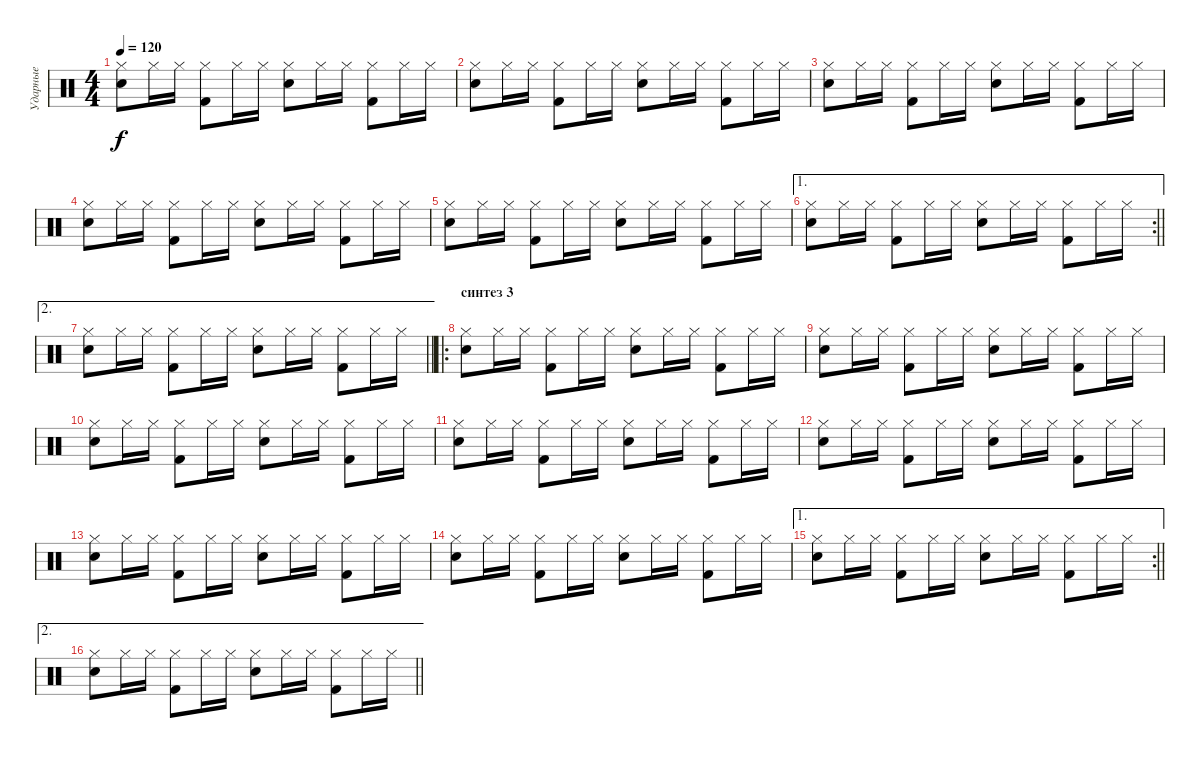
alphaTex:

\track ("Ударные" "Ударные") {instrument percussion}
\staff {score}
\articulation defaults
\ts (4 4)
\tempo 120
\clef neutral
\ks c
("Hi-Hat (closed)" "Snare (hit) 2").8{dy f} "Hi-Hat (closed)".16 "Hi-Hat (closed)".16 ("Hi-Hat (closed)" "Kick (hit) 2").8 "Hi-Hat (closed)".16 "Hi-Hat (closed)".16 ("Hi-Hat (closed)" "Snare (hit) 2").8 "Hi-Hat (closed)".16 "Hi-Hat (closed)".16 ("Hi-Hat (closed)" "Kick (hit) 2").8 "Hi-Hat (closed)".16 "Hi-Hat (closed)".16 |
("Hi-Hat (closed)" "Snare (hit) 2").8 "Hi-Hat (closed)".16 "Hi-Hat (closed)".16 ("Hi-Hat (closed)" "Kick (hit) 2").8 "Hi-Hat (closed)".16 "Hi-Hat (closed)".16 ("Hi-Hat (closed)" "Snare (hit) 2").8 "Hi-Hat (closed)".16 "Hi-Hat (closed)".16 ("Hi-Hat (closed)" "Kick (hit) 2").8 "Hi-Hat (closed)".16 "Hi-Hat (closed)".16 |
("Hi-Hat (closed)" "Snare (hit) 2").8 "Hi-Hat (closed)".16 "Hi-Hat (closed)".16 ("Hi-Hat (closed)" "Kick (hit) 2").8 "Hi-Hat (closed)".16 "Hi-Hat (closed)".16 ("Hi-Hat (closed)" "Snare (hit) 2").8 "Hi-Hat (closed)".16 "Hi-Hat (closed)".16 ("Hi-Hat (closed)" "Kick (hit) 2").8 "Hi-Hat (closed)".16 "Hi-Hat (closed)".16 |
("Hi-Hat (closed)" "Snare (hit) 2").8 "Hi-Hat (closed)".16 "Hi-Hat (closed)".16 ("Hi-Hat (closed)" "Kick (hit) 2").8 "Hi-Hat (closed)".16 "Hi-Hat (closed)".16 ("Hi-Hat (closed)" "Snare (hit) 2").8 "Hi-Hat (closed)".16 "Hi-Hat (closed)".16 ("Hi-Hat (closed)" "Kick (hit) 2").8 "Hi-Hat (closed)".16 "Hi-Hat (closed)".16 |
("Hi-Hat (closed)" "Snare (hit) 2").8 "Hi-Hat (closed)".16 "Hi-Hat (closed)".16 ("Hi-Hat (closed)" "Kick (hit) 2").8 "Hi-Hat (closed)".16 "Hi-Hat (closed)".16 ("Hi-Hat (closed)" "Snare (hit) 2").8 "Hi-Hat (closed)".16 "Hi-Hat (closed)".16 ("Hi-Hat (closed)" "Kick (hit) 2").8 "Hi-Hat (closed)".16 "Hi-Hat (closed)".16 |
\ae 1
\rc 2
\barLineRight lightlight
("Hi-Hat (closed)" "Snare (hit) 2").8 "Hi-Hat (closed)".16 "Hi-Hat (closed)".16 ("Hi-Hat (closed)" "Kick (hit) 2").8 "Hi-Hat (closed)".16 "Hi-Hat (closed)".16 ("Hi-Hat (closed)" "Snare (hit) 2").8 "Hi-Hat (closed)".16 "Hi-Hat (closed)".16 ("Hi-Hat (closed)" "Kick (hit) 2").8 "Hi-Hat (closed)".16 "Hi-Hat (closed)".16 |
\ae 2
\barLineRight lightlight
("Hi-Hat (closed)" "Snare (hit) 2").8 "Hi-Hat (closed)".16 "Hi-Hat (closed)".16 ("Hi-Hat (closed)" "Kick (hit) 2").8 "Hi-Hat (closed)".16 "Hi-Hat (closed)".16 ("Hi-Hat (closed)" "Snare (hit) 2").8 "Hi-Hat (closed)".16 "Hi-Hat (closed)".16 ("Hi-Hat (closed)" "Kick (hit) 2").8 "Hi-Hat (closed)".16 "Hi-Hat (closed)".16 |
\ro
\section ("" "синтез 3")
("Hi-Hat (closed)" "Snare (hit) 2").8 "Hi-Hat (closed)".16 "Hi-Hat (closed)".16 ("Hi-Hat (closed)" "Kick (hit) 2").8 "Hi-Hat (closed)".16 "Hi-Hat (closed)".16 ("Hi-Hat (closed)" "Snare (hit) 2").8 "Hi-Hat (closed)".16 "Hi-Hat (closed)".16 ("Hi-Hat (closed)" "Kick (hit) 2").8 "Hi-Hat (closed)".16 "Hi-Hat (closed)".16 |
("Hi-Hat (closed)" "Snare (hit) 2").8 "Hi-Hat (closed)".16 "Hi-Hat (closed)".16 ("Hi-Hat (closed)" "Kick (hit) 2").8 "Hi-Hat (closed)".16 "Hi-Hat (closed)".16 ("Hi-Hat (closed)" "Snare (hit) 2").8 "Hi-Hat (closed)".16 "Hi-Hat (closed)".16 ("Hi-Hat (closed)" "Kick (hit) 2").8 "Hi-Hat (closed)".16 "Hi-Hat (closed)".16 |
("Hi-Hat (closed)" "Snare (hit) 2").8 "Hi-Hat (closed)".16 "Hi-Hat (closed)".16 ("Hi-Hat (closed)" "Kick (hit) 2").8 "Hi-Hat (closed)".16 "Hi-Hat (closed)".16 ("Hi-Hat (closed)" "Snare (hit) 2").8 "Hi-Hat (closed)".16 "Hi-Hat (closed)".16 ("Hi-Hat (closed)" "Kick (hit) 2").8 "Hi-Hat (closed)".16 "Hi-Hat (closed)".16 |
("Hi-Hat (closed)" "Snare (hit) 2").8 "Hi-Hat (closed)".16 "Hi-Hat (closed)".16 ("Hi-Hat (closed)" "Kick (hit) 2").8 "Hi-Hat (closed)".16 "Hi-Hat (closed)".16 ("Hi-Hat (closed)" "Snare (hit) 2").8 "Hi-Hat (closed)".16 "Hi-Hat (closed)".16 ("Hi-Hat (closed)" "Kick (hit) 2").8 "Hi-Hat (closed)".16 "Hi-Hat (closed)".16 |
("Hi-Hat (closed)" "Snare (hit) 2").8 "Hi-Hat (closed)".16 "Hi-Hat (closed)".16 ("Hi-Hat (closed)" "Kick (hit) 2").8 "Hi-Hat (closed)".16 "Hi-Hat (closed)".16 ("Hi-Hat (closed)" "Snare (hit) 2").8 "Hi-Hat (closed)".16 "Hi-Hat (closed)".16 ("Hi-Hat (closed)" "Kick (hit) 2").8 "Hi-Hat (closed)".16 "Hi-Hat (closed)".16 |
("Hi-Hat (closed)" "Snare (hit) 2").8 "Hi-Hat (closed)".16 "Hi-Hat (closed)".16 ("Hi-Hat (closed)" "Kick (hit) 2").8 "Hi-Hat (closed)".16 "Hi-Hat (closed)".16 ("Hi-Hat (closed)" "Snare (hit) 2").8 "Hi-Hat (closed)".16 "Hi-Hat (closed)".16 ("Hi-Hat (closed)" "Kick (hit) 2").8 "Hi-Hat (closed)".16 "Hi-Hat (closed)".16 |
("Hi-Hat (closed)" "Snare (hit) 2").8 "Hi-Hat (closed)".16 "Hi-Hat (closed)".16 ("Hi-Hat (closed)" "Kick (hit) 2").8 "Hi-Hat (closed)".16 "Hi-Hat (closed)".16 ("Hi-Hat (closed)" "Snare (hit) 2").8 "Hi-Hat (closed)".16 "Hi-Hat (closed)".16 ("Hi-Hat (closed)" "Kick (hit) 2").8 "Hi-Hat (closed)".16 "Hi-Hat (closed)".16 |
\ae 1
\rc 2
\barLineRight lightlight
("Hi-Hat (closed)" "Snare (hit) 2").8 "Hi-Hat (closed)".16 "Hi-Hat (closed)".16 ("Hi-Hat (closed)" "Kick (hit) 2").8 "Hi-Hat (closed)".16 "Hi-Hat (closed)".16 ("Hi-Hat (closed)" "Snare (hit) 2").8 "Hi-Hat (closed)".16 "Hi-Hat (closed)".16 ("Hi-Hat (closed)" "Kick (hit) 2").8 "Hi-Hat (closed)".16 "Hi-Hat (closed)".16 |
\ae 2
\barLineRight lightlight
("Hi-Hat (closed)" "Snare (hit) 2").8 "Hi-Hat (closed)".16 "Hi-Hat (closed)".16 ("Hi-Hat (closed)" "Kick (hit) 2").8 "Hi-Hat (closed)".16 "Hi-Hat (closed)".16 ("Hi-Hat (closed)" "Snare (hit) 2").8 "Hi-Hat (closed)".16 "Hi-Hat (closed)".16 ("Hi-Hat (closed)" "Kick (hit) 2").8 "Hi-Hat (closed)".16 "Hi-Hat (closed)".16
